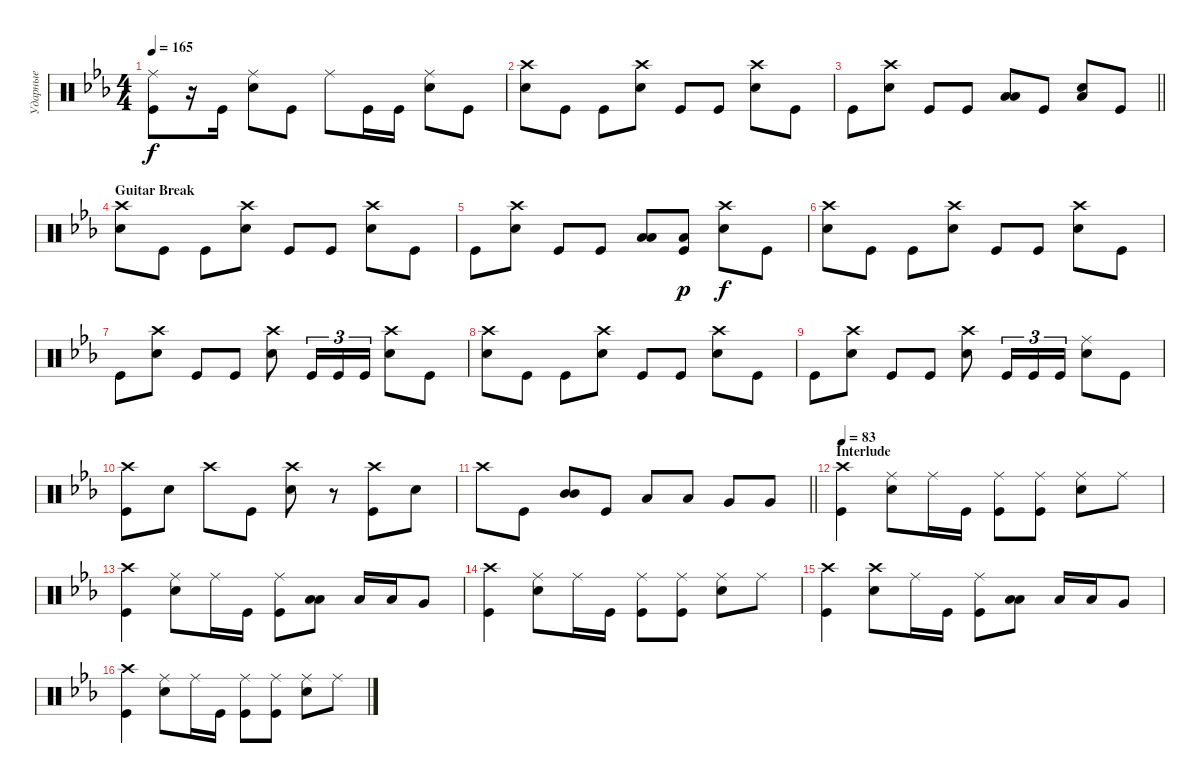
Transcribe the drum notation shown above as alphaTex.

\track ("Ударные" "Ударные") {instrument percussion}
\staff {score}
\articulation defaults
\ts (4 4)
\tempo 165
\clef neutral
\ks cminor
("Kick (hit)" "Ride (middle)").8{dy f} r.16 "Kick (hit)".16 ("Snare (hit) 2" "Ride (middle)").8 "Kick (hit)".8 "Ride (middle)".8 "Kick (hit)".16 "Kick (hit)".16 ("Snare (hit) 2" "Ride (middle)").8 "Kick (hit)".8 |
("Snare (hit) 2" "Crash high (hit)").8 "Kick (hit)".8 "Kick (hit)".8 ("Snare (hit) 2" "Crash high (hit)").8 "Kick (hit)".8 "Kick (hit)".8 ("Snare (hit) 2" "Crash high (hit)").8 "Kick (hit)".8 |
\barLineRight lightlight "Kick (hit)".8
("Snare (hit) 2" "Crash high (hit)").8 "Kick (hit)".8 "Kick (hit)".8 ("Low Tom (hit)" "Low Tom (hit)").8{bd 240} "Kick (hit)".8 ("Snare (hit) 2" "Low Tom (hit)").8 "Kick (hit)".8 |
\section ("" "Guitar Break")
("Snare (hit) 2" "Crash high (hit)").8 "Kick (hit)".8 "Kick (hit)".8 ("Snare (hit) 2" "Crash high (hit)").8 "Kick (hit)".8 "Kick (hit)".8 ("Snare (hit) 2" "Crash high (hit)").8 "Kick (hit)".8 |
"Kick (hit)".8 ("Snare (hit) 2" "Crash high (hit)").8 "Kick (hit)".8 "Kick (hit)".8 ("Low Tom (hit)" "Low Tom (hit)").8{bd 240} ("Kick (hit)" "Low Tom (hit)").8{dy p} ("Snare (hit) 2" "Crash high (hit)").8{dy f} "Kick (hit)".8 |
("Snare (hit) 2" "Crash high (hit)").8 "Kick (hit)".8 "Kick (hit)".8 ("Snare (hit) 2" "Crash high (hit)").8 "Kick (hit)".8 "Kick (hit)".8 ("Snare (hit) 2" "Crash high (hit)").8 "Kick (hit)".8 |
"Kick (hit)".8 ("Snare (hit) 2" "Crash high (hit)").8 "Kick (hit)".8 "Kick (hit)".8 ("Snare (hit) 2" "Crash high (hit)").8 "Kick (hit)".16{tu (3 2)} "Kick (hit)".16{tu (3 2)} "Kick (hit)".16{tu (3 2)} ("Snare (hit) 2" "Crash high (hit)").8 "Kick (hit)".8 |
("Snare (hit) 2" "Crash high (hit)").8 "Kick (hit)".8 "Kick (hit)".8 ("Snare (hit) 2" "Crash high (hit)").8 "Kick (hit)".8 "Kick (hit)".8 ("Snare (hit) 2" "Crash high (hit)").8 "Kick (hit)".8 |
"Kick (hit)".8 ("Snare (hit) 2" "Crash high (hit)").8 "Kick (hit)".8 "Kick (hit)".8 ("Snare (hit) 2" "Crash high (hit)").8 "Kick (hit)".16{tu (3 2)} "Kick (hit)".16{tu (3 2)} "Kick (hit)".16{tu (3 2)} ("Snare (hit) 2" "Ride (middle)").8 "Kick (hit)".8 |
("Kick (hit)" "Crash high (hit)").8 "Snare (hit) 2".8 "Crash high (hit)".8 "Kick (hit)".8 ("Snare (hit) 2" "Crash high (hit)").8 r.8 ("Kick (hit)" "Crash high (hit)").8 "Snare (hit) 2".8 |
\barLineRight lightlight "Crash high (hit)".8 "Kick (hit)".8
("Mid Tom (hit)" "Mid Tom (hit)").8{bd 240} "Kick (hit)".8 "Low Tom (hit)".8 "Low Tom (hit)".8 "Very Low Tom (hit)".8 "Very Low Tom (hit)".8 |
\section ("" "Interlude")
\tempo 83
("Kick (hit)" "Crash high (hit)").4 ("Snare (hit) 2" "Ride (middle)").8 "Ride (middle)".16 "Kick (hit)".16 ("Kick (hit)" "Ride (middle)").8 ("Kick (hit)" "Ride (middle)").8 ("Snare (hit) 2" "Ride (middle)").8 "Ride (middle)".8 |
("Kick (hit)" "Crash high (hit)").4 ("Snare (hit) 2" "Ride (middle)").8 "Ride (middle)".16 "Kick (hit)".16 ("Kick (hit)" "Ride (middle)").8 ("Low Tom (hit)" "Low Tom (hit)").8{bd 240} "Low Tom (hit)".16 "Low Tom (hit)".16 "Very Low Tom (hit)".8 |
("Kick (hit)" "Crash high (hit)").4 ("Snare (hit) 2" "Ride (middle)").8 "Ride (middle)".16 "Kick (hit)".16 ("Kick (hit)" "Ride (middle)").8 ("Kick (hit)" "Ride (middle)").8 ("Snare (hit) 2" "Ride (middle)").8 "Ride (middle)".8 |
("Kick (hit)" "Crash high (hit)").4 ("Snare (hit) 2" "Crash high (hit)").8 "Ride (middle)".16 "Kick (hit)".16 ("Kick (hit)" "Ride (middle)").8 ("Low Tom (hit)" "Low Tom (hit)").8{bd 240} "Low Tom (hit)".16 "Low Tom (hit)".16 "Very Low Tom (hit)".8 |
("Kick (hit)" "Crash high (hit)").4 ("Snare (hit) 2" "Ride (middle)").8 "Ride (middle)".16 "Kick (hit)".16 ("Kick (hit)" "Ride (middle)").8 ("Kick (hit)" "Ride (middle)").8 ("Snare (hit) 2" "Ride (middle)").8 "Ride (middle)".8
